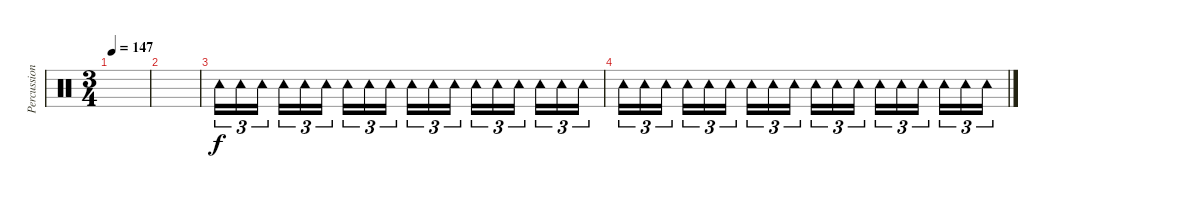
\track ("Percussions" "Percussion") {instrument percussion}
\staff
\articulation defaults
\ts (3 4)
\tempo 147
\clef neutral
\ks c
|
|
"Tambourine (hit)".16{tu (3 2) volume 0} "Tambourine (hit)".16{tu (3 2)} "Tambourine (hit)".16{tu (3 2) beam splitsecondary} "Tambourine (hit)".16{tu (3 2)} "Tambourine (hit)".16{tu (3 2)} "Tambourine (hit)".16{tu (3 2)} "Tambourine (hit)".16{tu (3 2)} "Tambourine (hit)".16{tu (3 2)} "Tambourine (hit)".16{tu (3 2) beam splitsecondary} "Tambourine (hit)".16{tu (3 2)} "Tambourine (hit)".16{tu (3 2)} "Tambourine (hit)".16{tu (3 2)} "Tambourine (hit)".16{tu (3 2)} "Tambourine (hit)".16{tu (3 2)} "Tambourine (hit)".16{tu (3 2) beam splitsecondary} "Tambourine (hit)".16{tu (3 2)} "Tambourine (hit)".16{tu (3 2)} "Tambourine (hit)".16{tu (3 2)} |
"Tambourine (hit)".16{tu (3 2)} "Tambourine (hit)".16{tu (3 2)} "Tambourine (hit)".16{tu (3 2) beam splitsecondary} "Tambourine (hit)".16{tu (3 2)} "Tambourine (hit)".16{tu (3 2)} "Tambourine (hit)".16{tu (3 2)} "Tambourine (hit)".16{tu (3 2)} "Tambourine (hit)".16{tu (3 2)} "Tambourine (hit)".16{tu (3 2) beam splitsecondary} "Tambourine (hit)".16{tu (3 2)} "Tambourine (hit)".16{tu (3 2)} "Tambourine (hit)".16{tu (3 2)} "Tambourine (hit)".16{tu (3 2)} "Tambourine (hit)".16{tu (3 2)} "Tambourine (hit)".16{tu (3 2) beam splitsecondary} "Tambourine (hit)".16{tu (3 2)} "Tambourine (hit)".16{tu (3 2)} "Tambourine (hit)".16{tu (3 2)}
